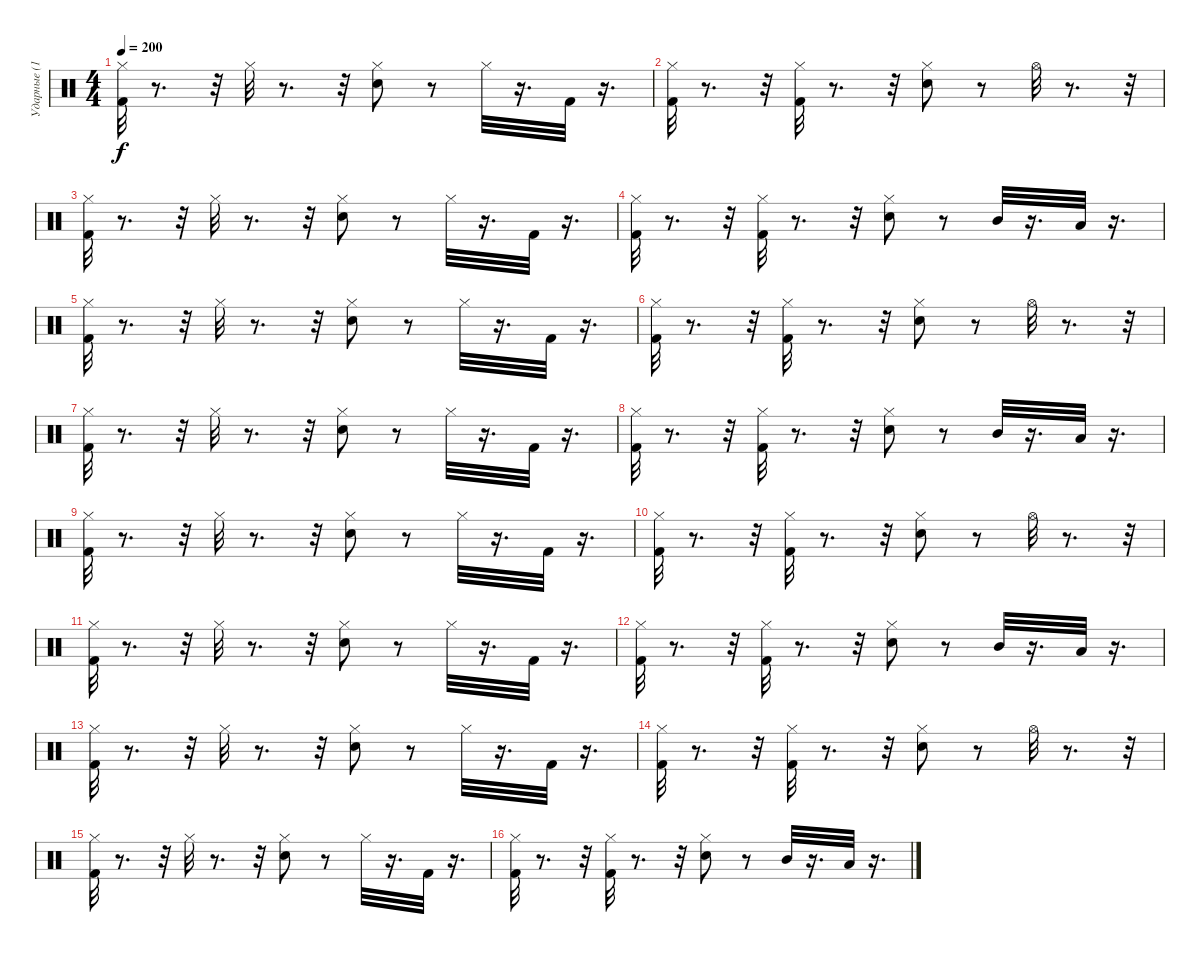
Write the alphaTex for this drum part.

\track ("Ударные (1)" "Ударные (1") {instrument percussion}
\staff {score}
\articulation defaults
\ts (4 4)
\tempo 200
\clef neutral
\ks c
("Hi-Hat (closed)" "Kick (hit) 2").32{dy f} r.8{d} r.32 "Hi-Hat (closed)".32 r.8{d} r.32 ("Hi-Hat (closed)" "Hand Clap (hit)").8 r.8 "Hi-Hat (closed)".32 r.16{d} "Kick (hit) 2".32 r.16{d} |
("Hi-Hat (closed)" "Kick (hit) 2").32 r.8{d} r.32 ("Hi-Hat (closed)" "Kick (hit) 2").32 r.8{d} r.32 ("Hi-Hat (closed)" "Hand Clap (hit)").8 r.8 "Hi-Hat (open)".32 r.8{d} r.32 |
("Hi-Hat (closed)" "Kick (hit) 2").32 r.8{d} r.32 "Hi-Hat (closed)".32 r.8{d} r.32 ("Hi-Hat (closed)" "Hand Clap (hit)").8 r.8 "Hi-Hat (closed)".32 r.16{d} "Kick (hit) 2".32 r.16{d} |
("Hi-Hat (closed)" "Kick (hit) 2").32 r.8{d} r.32 ("Hi-Hat (closed)" "Kick (hit) 2").32 r.8{d} r.32 ("Hi-Hat (closed)" "Hand Clap (hit)").8 r.8 "Mid Tom (hit)".32 r.16{d} "Low Tom (hit)".32 r.16{d} |
("Hi-Hat (closed)" "Kick (hit) 2").32 r.8{d} r.32 "Hi-Hat (closed)".32 r.8{d} r.32 ("Hi-Hat (closed)" "Hand Clap (hit)").8 r.8 "Hi-Hat (closed)".32 r.16{d} "Kick (hit) 2".32 r.16{d} |
("Hi-Hat (closed)" "Kick (hit) 2").32 r.8{d} r.32 ("Hi-Hat (closed)" "Kick (hit) 2").32 r.8{d} r.32 ("Hi-Hat (closed)" "Hand Clap (hit)").8 r.8 "Hi-Hat (open)".32 r.8{d} r.32 |
("Hi-Hat (closed)" "Kick (hit) 2").32 r.8{d} r.32 "Hi-Hat (closed)".32 r.8{d} r.32 ("Hi-Hat (closed)" "Hand Clap (hit)").8 r.8 "Hi-Hat (closed)".32 r.16{d} "Kick (hit) 2".32 r.16{d} |
("Hi-Hat (closed)" "Kick (hit) 2").32 r.8{d} r.32 ("Hi-Hat (closed)" "Kick (hit) 2").32 r.8{d} r.32 ("Hi-Hat (closed)" "Hand Clap (hit)").8 r.8 "Mid Tom (hit)".32 r.16{d} "Low Tom (hit)".32 r.16{d} |
("Hi-Hat (closed)" "Kick (hit) 2").32 r.8{d} r.32 "Hi-Hat (closed)".32 r.8{d} r.32 ("Hi-Hat (closed)" "Hand Clap (hit)").8 r.8 "Hi-Hat (closed)".32 r.16{d} "Kick (hit) 2".32 r.16{d} |
("Hi-Hat (closed)" "Kick (hit) 2").32 r.8{d} r.32 ("Hi-Hat (closed)" "Kick (hit) 2").32 r.8{d} r.32 ("Hi-Hat (closed)" "Hand Clap (hit)").8 r.8 "Hi-Hat (open)".32 r.8{d} r.32 |
("Hi-Hat (closed)" "Kick (hit) 2").32 r.8{d} r.32 "Hi-Hat (closed)".32 r.8{d} r.32 ("Hi-Hat (closed)" "Hand Clap (hit)").8 r.8 "Hi-Hat (closed)".32 r.16{d} "Kick (hit) 2".32 r.16{d} |
("Hi-Hat (closed)" "Kick (hit) 2").32 r.8{d} r.32 ("Hi-Hat (closed)" "Kick (hit) 2").32 r.8{d} r.32 ("Hi-Hat (closed)" "Hand Clap (hit)").8 r.8 "Mid Tom (hit)".32 r.16{d} "Low Tom (hit)".32 r.16{d} |
("Hi-Hat (closed)" "Kick (hit) 2").32 r.8{d} r.32 "Hi-Hat (closed)".32 r.8{d} r.32 ("Hi-Hat (closed)" "Hand Clap (hit)").8 r.8 "Hi-Hat (closed)".32 r.16{d} "Kick (hit) 2".32 r.16{d} |
("Hi-Hat (closed)" "Kick (hit) 2").32 r.8{d} r.32 ("Hi-Hat (closed)" "Kick (hit) 2").32 r.8{d} r.32 ("Hi-Hat (closed)" "Hand Clap (hit)").8 r.8 "Hi-Hat (open)".32 r.8{d} r.32 |
("Hi-Hat (closed)" "Kick (hit) 2").32 r.8{d} r.32 "Hi-Hat (closed)".32 r.8{d} r.32 ("Hi-Hat (closed)" "Hand Clap (hit)").8 r.8 "Hi-Hat (closed)".32 r.16{d} "Kick (hit) 2".32 r.16{d} |
("Hi-Hat (closed)" "Kick (hit) 2").32 r.8{d} r.32 ("Hi-Hat (closed)" "Kick (hit) 2").32 r.8{d} r.32 ("Hi-Hat (closed)" "Hand Clap (hit)").8 r.8 "Mid Tom (hit)".32 r.16{d} "Low Tom (hit)".32 r.16{d}
